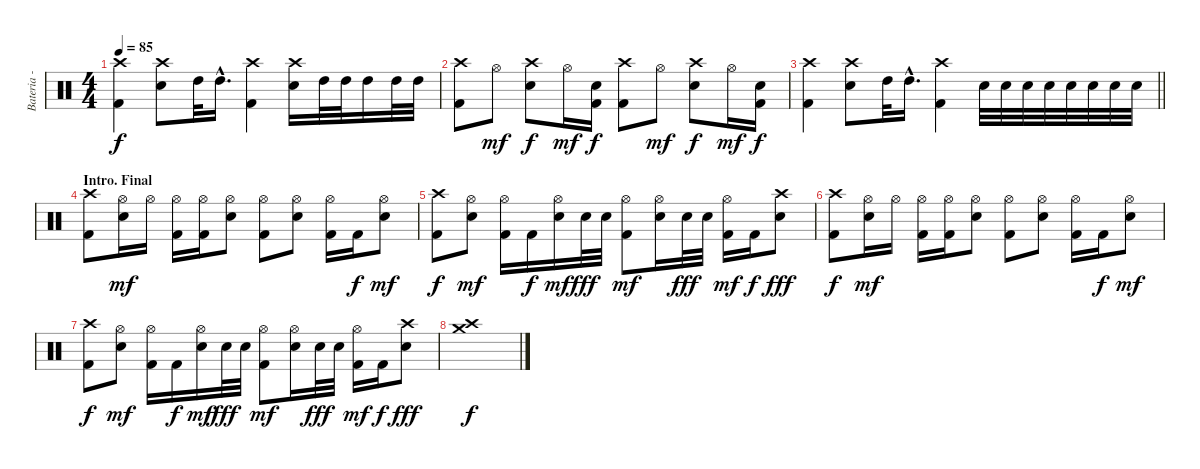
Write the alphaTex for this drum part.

\track ("Bateria - Larzon" "Bateria - ") {instrument percussion}
\staff {score}
\articulation defaults
\ts (4 4)
\tempo 85
\clef neutral
\ks c
("Crash high (hit)" "Kick (hit) 2").4{dy f} ("Crash high (hit)" "Snare (hit) 2").8 "High Tom (hit)".32 "High Tom (hit)"{hac}.16{d} ("Crash high (hit)" "Kick (hit) 2").4 ("Crash high (hit)" "Snare (hit) 2").16 "High Tom (hit)".32 "High Tom (hit)".32 "High Tom (hit)".16 "High Tom (hit)".32 "High Tom (hit)".32 |
("Crash high (hit)" "Kick (hit) 2").8 "Hi-Hat (open)".8{dy mf} ("Crash high (hit)" "Snare (hit) 2").8{dy f} "Hi-Hat (open)".16{dy mf} ("Snare (hit) 2" "Kick (hit) 2").16{dy f} ("Crash high (hit)" "Kick (hit) 2").8 "Hi-Hat (open)".8{dy mf} ("Crash high (hit)" "Snare (hit) 2").8{dy f} "Hi-Hat (open)".16{dy mf} ("Snare (hit) 2" "Kick (hit) 2").16{dy f} |
\barLineRight lightlight
("Crash high (hit)" "Kick (hit) 2").4 ("Crash high (hit)" "Snare (hit) 2").8 "High Tom (hit)".32 "High Tom (hit)"{hac}.16{d} ("Crash high (hit)" "Kick (hit) 2").4 "Snare (hit) 2".32 "Snare (hit) 2".32 "Snare (hit) 2".32 "Snare (hit) 2".32 "Snare (hit) 2".32 "Snare (hit) 2".32 "Snare (hit) 2".32 "Snare (hit) 2".32 |
\section ("" "Intro. Final")
("Kick (hit) 2" "Crash high (hit)").8{volume 13} ("Snare (hit) 2" "Hi-Hat (open)").16{dy mf} "Hi-Hat (open)".16 ("Kick (hit) 2" "Hi-Hat (open)").16 ("Kick (hit) 2" "Hi-Hat (open)").16 ("Snare (hit) 2" "Hi-Hat (open)").8 ("Kick (hit) 2" "Hi-Hat (open)").8 ("Snare (hit) 2" "Hi-Hat (open)").8 ("Kick (hit) 2" "Hi-Hat (open)").16 "Kick (hit) 2".16{dy f} ("Snare (hit) 2" "Hi-Hat (open)").8{dy mf} |
("Kick (hit) 2" "Crash high (hit)").8{dy f} ("Snare (hit) 2" "Hi-Hat (open)").8{dy mf} ("Kick (hit) 2" "Hi-Hat (open)").16 "Kick (hit) 2".16{dy f} ("Snare (hit) 2" "Hi-Hat (open)").16{dy mf} "Snare (hit) 2".32{dy fff} "Snare (hit) 2".32 ("Kick (hit) 2" "Hi-Hat (open)").8{dy mf} ("Snare (hit) 2" "Hi-Hat (open)").16 "Snare (hit) 2".32{dy fff} "Snare (hit) 2".32 ("Kick (hit) 2" "Hi-Hat (open)").16{dy mf} "Kick (hit) 2".16{dy f} ("Snare (hit) 2" "Crash high (hit)").8{dy fff} |
("Kick (hit) 2" "Crash high (hit)").8{dy f} ("Snare (hit) 2" "Hi-Hat (open)").16{dy mf} "Hi-Hat (open)".16 ("Kick (hit) 2" "Hi-Hat (open)").16 ("Kick (hit) 2" "Hi-Hat (open)").16 ("Snare (hit) 2" "Hi-Hat (open)").8 ("Kick (hit) 2" "Hi-Hat (open)").8 ("Snare (hit) 2" "Hi-Hat (open)").8 ("Kick (hit) 2" "Hi-Hat (open)").16 "Kick (hit) 2".16{dy f} ("Snare (hit) 2" "Hi-Hat (open)").8{dy mf} |
("Kick (hit) 2" "Crash high (hit)").8{dy f} ("Snare (hit) 2" "Hi-Hat (open)").8{dy mf} ("Kick (hit) 2" "Hi-Hat (open)").16 "Kick (hit) 2".16{dy f} ("Snare (hit) 2" "Hi-Hat (open)").16{dy mf} "Snare (hit) 2".32{dy fff} "Snare (hit) 2".32 ("Kick (hit) 2" "Hi-Hat (open)").8{dy mf} ("Snare (hit) 2" "Hi-Hat (open)").16 "Snare (hit) 2".32{dy fff} "Snare (hit) 2".32 ("Kick (hit) 2" "Hi-Hat (open)").16{dy mf} "Kick (hit) 2".16{dy f} ("Snare (hit) 2" "Crash high (hit)").8{dy fff} |
("Crash medium (hit)" "Crash high (hit)").1{dy f}
